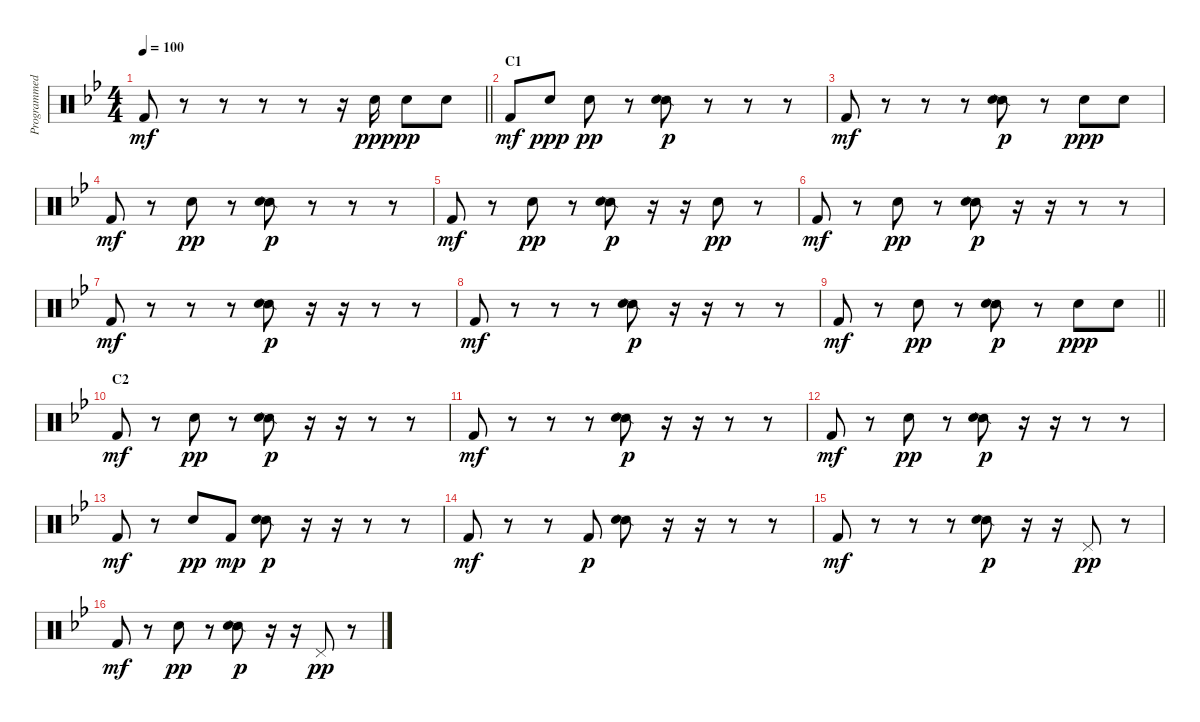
\track ("Programmed Drums" "Programmed") {instrument percussion}
\staff {score}
\articulation defaults
\ts (4 4)
\tempo 100
\clef neutral
\barLineRight lightlight
\ks bb "Kick (hit) 2".8{dy mf}
r.8 r.8 r.8 r.8 r.16 "Snare (hit) 2".16{dy ppp} "Snare (hit) 2".8{dy pp} "Snare (hit) 2".8 |
\section ("" "C1")
"Kick (hit) 2".8{dy mf} "Snare (hit) 2".8{dy ppp} "Snare (hit) 2".8{dy pp} r.8 ("Snare (side stick) 2" "Snare (hit) 2").8{dy p} r.8 r.8 r.8 |
"Kick (hit) 2".8{dy mf} r.8 r.8 r.8 ("Snare (side stick) 2" "Snare (hit) 2").8{dy p} r.8 "Snare (hit) 2".8{dy ppp} "Snare (hit) 2".8 |
"Kick (hit) 2".8{dy mf} r.8 "Snare (hit) 2".8{dy pp} r.8 ("Snare (side stick) 2" "Snare (hit) 2").8{dy p} r.8 r.8 r.8 |
"Kick (hit) 2".8{dy mf} r.8 "Snare (hit) 2".8{dy pp} r.8 ("Snare (side stick) 2" "Snare (hit) 2").8{dy p} r.16 r.16 "Snare (hit) 2".8{dy pp} r.8 |
"Kick (hit) 2".8{dy mf} r.8 "Snare (hit) 2".8{dy pp} r.8 ("Snare (side stick) 2" "Snare (hit) 2").8{dy p} r.16 r.16 r.8 r.8 |
"Kick (hit) 2".8{dy mf} r.8 r.8 r.8 ("Snare (side stick) 2" "Snare (hit) 2").8{dy p} r.16 r.16 r.8 r.8 |
"Kick (hit) 2".8{dy mf} r.8 r.8 r.8 ("Snare (side stick) 2" "Snare (hit) 2").8{dy p} r.16 r.16 r.8 r.8 |
\barLineRight lightlight "Kick (hit) 2".8{dy mf}
r.8 "Snare (hit) 2".8{dy pp} r.8 ("Snare (side stick) 2" "Snare (hit) 2").8{dy p} r.8 "Snare (hit) 2".8{dy ppp} "Snare (hit) 2".8 |
\section ("" "C2")
"Kick (hit) 2".8{dy mf} r.8 "Snare (hit) 2".8{dy pp} r.8 ("Snare (side stick) 2" "Snare (hit) 2").8{dy p} r.16 r.16 r.8 r.8 |
"Kick (hit) 2".8{dy mf} r.8 r.8 r.8 ("Snare (side stick) 2" "Snare (hit) 2").8{dy p} r.16 r.16 r.8 r.8 |
"Kick (hit) 2".8{dy mf} r.8 "Snare (hit) 2".8{dy pp} r.8 ("Snare (side stick) 2" "Snare (hit) 2").8{dy p} r.16 r.16 r.8 r.8 |
"Kick (hit) 2".8{dy mf} r.8 "Snare (hit) 2".8{dy pp} "Kick (hit) 2".8{dy mp} ("Snare (side stick) 2" "Snare (hit) 2").8{dy p} r.16 r.16 r.8 r.8 |
"Kick (hit) 2".8{dy mf} r.8 r.8 "Kick (hit) 2".8{dy p} ("Snare (side stick) 2" "Snare (hit) 2").8 r.16 r.16 r.8 r.8 |
"Kick (hit) 2".8{dy mf} r.8 r.8 r.8 ("Snare (side stick) 2" "Snare (hit) 2").8{dy p} r.16 r.16 "Pedal Hi-Hat (hit)".8{dy pp} r.8 |
"Kick (hit) 2".8{dy mf} r.8 "Snare (hit) 2".8{dy pp} r.8 ("Snare (side stick) 2" "Snare (hit) 2").8{dy p} r.16 r.16 "Pedal Hi-Hat (hit)".8{dy pp} r.8
